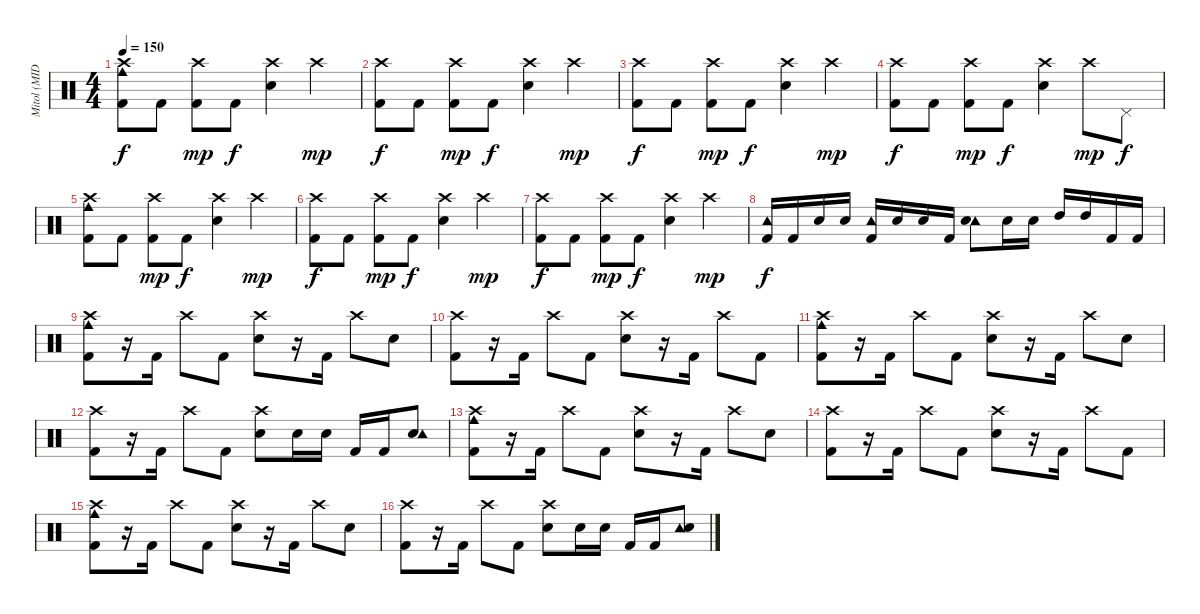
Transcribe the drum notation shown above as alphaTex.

\track ("Mitol (MIDI)" "Mitol (MID") {instrument percussion}
\staff {score}
\articulation defaults
\ts (4 4)
\tempo 150
\clef neutral
\ks c
("Crash high (hit)" "Kick (hit) 2" "Cowbell medium (hit)").8{dy f} "Kick (hit) 2".8 ("Crash high (hit)" "Kick (hit) 2").8{dy mp} "Kick (hit) 2".8{dy f} ("Crash high (hit)" "Electric Snare (hit)").4 "Crash high (hit)".4{dy mp} |
("Kick (hit) 2" "Crash high (hit)").8{dy f} "Kick (hit) 2".8 ("Kick (hit) 2" "Crash high (hit)").8{dy mp} "Kick (hit) 2".8{dy f} ("Electric Snare (hit)" "Crash high (hit)").4 "Crash high (hit)".4{dy mp} |
("Kick (hit) 2" "Crash high (hit)").8{dy f} "Kick (hit) 2".8 ("Kick (hit) 2" "Crash high (hit)").8{dy mp} "Kick (hit) 2".8{dy f} ("Electric Snare (hit)" "Crash high (hit)").4 "Crash high (hit)".4{dy mp} |
("Crash high (hit)" "Kick (hit) 2").8{dy f} "Kick (hit) 2".8 ("Kick (hit) 2" "Crash high (hit)").8{dy mp} "Kick (hit) 2".8{dy f} ("Electric Snare (hit)" "Crash high (hit)").4 "Crash high (hit)".8{dy mp} "Pedal Hi-Hat (hit)".8{dy f} |
("Crash high (hit)" "Kick (hit) 2" "Cowbell medium (hit)").8 "Kick (hit) 2".8 ("Kick (hit) 2" "Crash high (hit)").8{dy mp} "Kick (hit) 2".8{dy f} ("Crash high (hit)" "Electric Snare (hit)").4 "Crash high (hit)".4{dy mp} |
("Crash high (hit)" "Kick (hit) 2").8{dy f} "Kick (hit) 2".8 ("Kick (hit) 2" "Crash high (hit)").8{dy mp} "Kick (hit) 2".8{dy f} ("Crash high (hit)" "Electric Snare (hit)").4 "Crash high (hit)".4{dy mp} |
("Crash high (hit)" "Kick (hit) 2").8{dy f} "Kick (hit) 2".8 ("Crash high (hit)" "Kick (hit) 2").8{dy mp} "Kick (hit) 2".8{dy f} ("Crash high (hit)" "Electric Snare (hit)").4 "Crash high (hit)".4{dy mp} |
("Tambourine (hit)" "Kick (hit) 2").16{dy f} "Kick (hit) 2".16 "Electric Snare (hit)".16 "Electric Snare (hit)".16 ("Tambourine (hit)" "Kick (hit) 2").16 "Electric Snare (hit)".16 "Electric Snare (hit)".16 "Kick (hit) 2".16 ("Tambourine (hit)" "Electric Snare (hit)").8 "Electric Snare (hit)".16 "Electric Snare (hit)".16 "High Tom (hit)".16 "High Tom (hit)".16 "Kick (hit) 2".16 "Kick (hit) 2".16 |
("Crash high (hit)" "Kick (hit) 2" "Cowbell medium (hit)").8 r.16 "Kick (hit) 2".16 "Crash high (hit)".8 "Kick (hit) 2".8 ("Crash high (hit)" "Electric Snare (hit)").8 r.16 "Kick (hit) 2".16 "Crash high (hit)".8 "Electric Snare (hit)".8 |
("Kick (hit) 2" "Crash high (hit)").8 r.16 "Kick (hit) 2".16 "Crash high (hit)".8 "Kick (hit) 2".8 ("Electric Snare (hit)" "Crash high (hit)").8 r.16 "Kick (hit) 2".16 "Crash high (hit)".8 "Kick (hit) 2".8 |
("Cowbell medium (hit)" "Kick (hit) 2" "Crash high (hit)").8 r.16 "Kick (hit) 2".16 "Crash high (hit)".8 "Kick (hit) 2".8 ("Electric Snare (hit)" "Crash high (hit)").8 r.16 "Kick (hit) 2".16 "Crash high (hit)".8 "Electric Snare (hit)".8 |
("Crash high (hit)" "Kick (hit) 2").8 r.16 "Kick (hit) 2".16 "Crash high (hit)".8 "Kick (hit) 2".8 ("Electric Snare (hit)" "Crash high (hit)").8 "Electric Snare (hit)".16 "Electric Snare (hit)".16 "Kick (hit) 2".16 "Kick (hit) 2".16 ("Electric Snare (hit)" "Tambourine (hit)").8 |
("Crash high (hit)" "Kick (hit) 2" "Cowbell medium (hit)").8 r.16 "Kick (hit) 2".16 "Crash high (hit)".8 "Kick (hit) 2".8 ("Electric Snare (hit)" "Crash high (hit)").8 r.16 "Kick (hit) 2".16 "Crash high (hit)".8 "Electric Snare (hit)".8 |
("Crash high (hit)" "Kick (hit) 2").8 r.16 "Kick (hit) 2".16 "Crash high (hit)".8 "Kick (hit) 2".8 ("Electric Snare (hit)" "Crash high (hit)").8 r.16 "Kick (hit) 2".16 "Crash high (hit)".8 "Kick (hit) 2".8 |
("Crash high (hit)" "Kick (hit) 2" "Cowbell medium (hit)").8 r.16 "Kick (hit) 2".16 "Crash high (hit)".8 "Kick (hit) 2".8 ("Crash high (hit)" "Electric Snare (hit)").8 r.16 "Kick (hit) 2".16 "Crash high (hit)".8 "Electric Snare (hit)".8 |
("Crash high (hit)" "Kick (hit) 2").8 r.16 "Kick (hit) 2".16 "Crash high (hit)".8 "Kick (hit) 2".8 ("Electric Snare (hit)" "Crash high (hit)").8 "Electric Snare (hit)".16 "Electric Snare (hit)".16 "Kick (hit) 2".16 "Kick (hit) 2".16 ("Tambourine (hit)" "Electric Snare (hit)").8
